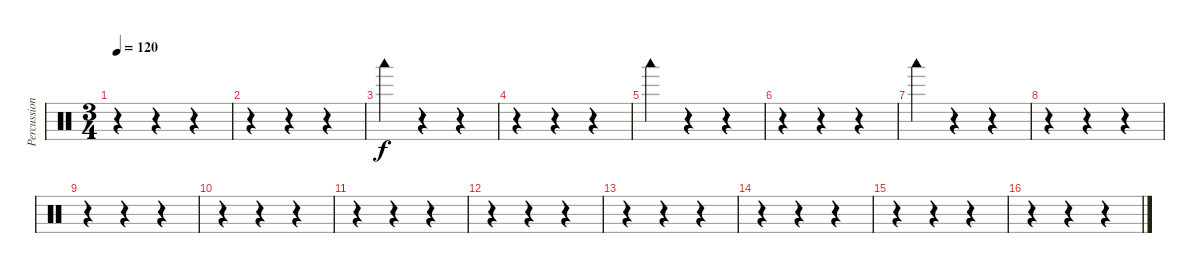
\track ("Percussions" "Percussion") {instrument percussion}
\staff {score}
\articulation defaults
\ts (3 4)
\tempo 120
\clef neutral
\ks c
r.4{dy f} r.4 r.4 |
r.4 r.4 r.4 |
"Woodblock low (hit)".4 r.4 r.4 |
r.4 r.4 r.4 |
"Woodblock low (hit)".4 r.4 r.4 |
r.4 r.4 r.4 |
"Woodblock low (hit)".4 r.4 r.4 |
r.4 r.4 r.4 |
r.4 r.4 r.4 |
r.4 r.4 r.4 |
r.4 r.4 r.4 |
r.4 r.4 r.4 |
r.4 r.4 r.4 |
r.4 r.4 r.4 |
r.4 r.4 r.4 |
r.4 r.4 r.4
